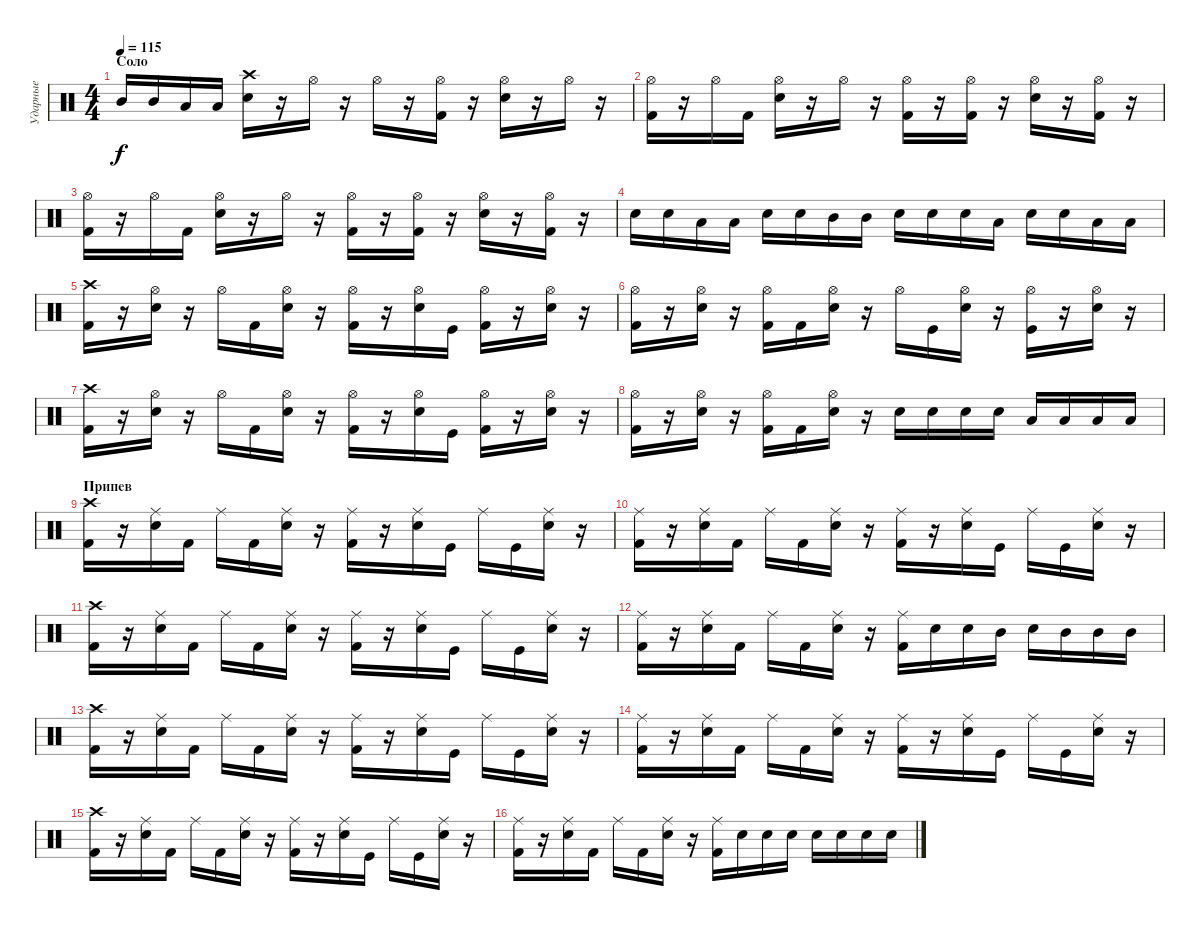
\track ("Ударные" "Ударные") {instrument percussion}
\staff {score}
\articulation defaults
\ts (4 4)
\section ("" "Соло")
\tempo 115
\clef neutral
\ks c "Mid Tom (hit)".16{dy f} "Mid Tom (hit)".16 "Low Tom (hit)".16 "Low Tom (hit)".16
("Snare (hit) 2" "Crash high (hit)").16 r.16 "Hi-Hat (open)".16 r.16 "Hi-Hat (open)".16 r.16 ("Hi-Hat (open)" "Kick (hit) 2").16 r.16 ("Hi-Hat (open)" "Snare (hit) 2").16 r.16 "Hi-Hat (open)".16 r.16 |
("Hi-Hat (open)" "Kick (hit) 2").16 r.16 "Hi-Hat (open)".16 "Kick (hit) 2".16 ("Hi-Hat (open)" "Snare (hit) 2").16 r.16 "Hi-Hat (open)".16 r.16 ("Hi-Hat (open)" "Kick (hit) 2").16 r.16 ("Hi-Hat (open)" "Kick (hit) 2").16 r.16 ("Hi-Hat (open)" "Snare (hit) 2").16 r.16 ("Hi-Hat (open)" "Kick (hit) 2").16 r.16 |
("Hi-Hat (open)" "Kick (hit) 2").16 r.16 "Hi-Hat (open)".16 "Kick (hit) 2".16 ("Hi-Hat (open)" "Snare (hit) 2").16 r.16 "Hi-Hat (open)".16 r.16 ("Hi-Hat (open)" "Kick (hit) 2").16 r.16 ("Hi-Hat (open)" "Kick (hit) 2").16 r.16 ("Hi-Hat (open)" "Snare (hit) 2").16 r.16 ("Hi-Hat (open)" "Kick (hit) 2").16 r.16 |
"Snare (hit) 2".16 "Snare (hit) 2".16 "Low Tom (hit)".16 "Low Tom (hit)".16 "Snare (hit) 2".16 "Snare (hit) 2".16 "Mid Tom (hit)".16 "Mid Tom (hit)".16 "Snare (hit) 2".16 "Snare (hit) 2".16 "Snare (hit) 2".16 "Low Tom (hit)".16 "Snare (hit) 2".16 "Snare (hit) 2".16 "Low Tom (hit)".16 "Low Tom (hit)".16 |
("Crash high (hit)" "Kick (hit) 2").16 r.16 ("Snare (hit) 2" "Hi-Hat (open)").16 r.16 "Hi-Hat (open)".16 "Kick (hit) 2".16 ("Snare (hit) 2" "Hi-Hat (open)").16 r.16 ("Kick (hit) 2" "Hi-Hat (open)").16 r.16 ("Snare (hit) 2" "Hi-Hat (open)").16 "Kick (hit)".16 ("Kick (hit) 2" "Hi-Hat (open)").16 r.16 ("Snare (hit) 2" "Hi-Hat (open)").16 r.16 |
("Hi-Hat (open)" "Kick (hit) 2").16 r.16 ("Snare (hit) 2" "Hi-Hat (open)").16 r.16 ("Kick (hit) 2" "Hi-Hat (open)").16 "Kick (hit) 2".16 ("Snare (hit) 2" "Hi-Hat (open)").16 r.16 "Hi-Hat (open)".16 "Kick (hit)".16 ("Snare (hit) 2" "Hi-Hat (open)").16 r.16 ("Kick (hit)" "Hi-Hat (open)").16 r.16 ("Snare (hit) 2" "Hi-Hat (open)").16 r.16 |
("Crash high (hit)" "Kick (hit) 2").16 r.16 ("Snare (hit) 2" "Hi-Hat (open)").16 r.16 "Hi-Hat (open)".16 "Kick (hit) 2".16 ("Snare (hit) 2" "Hi-Hat (open)").16 r.16 ("Kick (hit) 2" "Hi-Hat (open)").16 r.16 ("Snare (hit) 2" "Hi-Hat (open)").16 "Kick (hit)".16 ("Kick (hit) 2" "Hi-Hat (open)").16 r.16 ("Snare (hit) 2" "Hi-Hat (open)").16 r.16 |
("Hi-Hat (open)" "Kick (hit) 2").16 r.16 ("Snare (hit) 2" "Hi-Hat (open)").16 r.16 ("Kick (hit) 2" "Hi-Hat (open)").16 "Kick (hit) 2".16 ("Snare (hit) 2" "Hi-Hat (open)").16 r.16 "Snare (hit) 2".16 "Snare (hit) 2".16 "Snare (hit) 2".16 "Snare (hit) 2".16 "Low Tom (hit)".16 "Low Tom (hit)".16 "Low Tom (hit)".16 "Low Tom (hit)".16 |
\section ("" "Припев")
("Crash high (hit)" "Kick (hit) 2").16 r.16 ("Snare (hit) 2" "Ride (middle)").16 "Kick (hit) 2".16 "Ride (middle)".16 "Kick (hit) 2".16 ("Snare (hit) 2" "Ride (middle)").16 r.16 ("Kick (hit) 2" "Ride (middle)").16 r.16 ("Snare (hit) 2" "Ride (middle)").16 "Kick (hit)".16 "Ride (middle)".16 "Kick (hit)".16 ("Snare (hit) 2" "Ride (middle)").16 r.16 |
("Ride (middle)" "Kick (hit) 2").16 r.16 ("Snare (hit) 2" "Ride (middle)").16 "Kick (hit) 2".16 "Ride (middle)".16 "Kick (hit) 2".16 ("Snare (hit) 2" "Ride (middle)").16 r.16 ("Kick (hit) 2" "Ride (middle)").16 r.16 ("Snare (hit) 2" "Ride (middle)").16 "Kick (hit)".16 "Ride (middle)".16 "Kick (hit)".16 ("Snare (hit) 2" "Ride (middle)").16 r.16 |
("Crash high (hit)" "Kick (hit) 2").16 r.16 ("Snare (hit) 2" "Ride (middle)").16 "Kick (hit) 2".16 "Ride (middle)".16 "Kick (hit) 2".16 ("Snare (hit) 2" "Ride (middle)").16 r.16 ("Kick (hit) 2" "Ride (middle)").16 r.16 ("Snare (hit) 2" "Ride (middle)").16 "Kick (hit)".16 "Ride (middle)".16 "Kick (hit)".16 ("Snare (hit) 2" "Ride (middle)").16 r.16 |
("Ride (middle)" "Kick (hit) 2").16 r.16 ("Snare (hit) 2" "Ride (middle)").16 "Kick (hit) 2".16 "Ride (middle)".16 "Kick (hit) 2".16 ("Snare (hit) 2" "Ride (middle)").16 r.16 ("Kick (hit) 2" "Ride (middle)").16 "Snare (hit) 2".16 "Snare (hit) 2".16 "Mid Tom (hit)".16 "Snare (hit) 2".16 "Mid Tom (hit)".16 "Mid Tom (hit)".16 "Mid Tom (hit)".16 |
("Crash high (hit)" "Kick (hit) 2").16 r.16 ("Snare (hit) 2" "Ride (middle)").16 "Kick (hit) 2".16 "Ride (middle)".16 "Kick (hit) 2".16 ("Snare (hit) 2" "Ride (middle)").16 r.16 ("Kick (hit) 2" "Ride (middle)").16 r.16 ("Snare (hit) 2" "Ride (middle)").16 "Kick (hit)".16 "Ride (middle)".16 "Kick (hit)".16 ("Snare (hit) 2" "Ride (middle)").16 r.16 |
("Ride (middle)" "Kick (hit) 2").16 r.16 ("Snare (hit) 2" "Ride (middle)").16 "Kick (hit) 2".16 "Ride (middle)".16 "Kick (hit) 2".16 ("Snare (hit) 2" "Ride (middle)").16 r.16 ("Kick (hit) 2" "Ride (middle)").16 r.16 ("Snare (hit) 2" "Ride (middle)").16 "Kick (hit)".16 "Ride (middle)".16 "Kick (hit)".16 ("Snare (hit) 2" "Ride (middle)").16 r.16 |
("Crash high (hit)" "Kick (hit) 2").16 r.16 ("Snare (hit) 2" "Ride (middle)").16 "Kick (hit) 2".16 "Ride (middle)".16 "Kick (hit) 2".16 ("Snare (hit) 2" "Ride (middle)").16 r.16 ("Kick (hit) 2" "Ride (middle)").16 r.16 ("Snare (hit) 2" "Ride (middle)").16 "Kick (hit)".16 "Ride (middle)".16 "Kick (hit)".16 ("Snare (hit) 2" "Ride (middle)").16 r.16 |
("Ride (middle)" "Kick (hit) 2").16 r.16 ("Snare (hit) 2" "Ride (middle)").16 "Kick (hit) 2".16 "Ride (middle)".16 "Kick (hit) 2".16 ("Snare (hit) 2" "Ride (middle)").16 r.16 ("Kick (hit) 2" "Ride (middle)").16 "Snare (hit) 2".16 "Snare (hit) 2".16 "Snare (hit) 2".16 "Snare (hit) 2".16 "Snare (hit) 2".16 "Snare (hit) 2".16 "Snare (hit) 2".16
